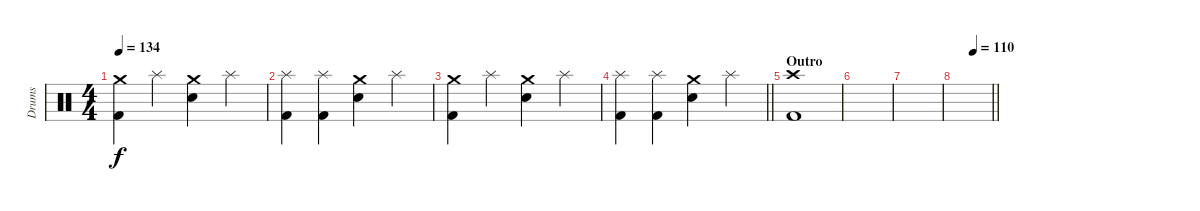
\track ("Drums" "Drums") {instrument percussion}
\staff {score}
\articulation defaults
\ts (4 4)
\tempo 134
\clef neutral
\ks c
("Crash medium (hit)" "Kick (hit) 2").4{dy f} "Splash (hit)".4 ("Crash medium (hit)" "Electric Snare (hit)").4 "Splash (hit)".4 |
("Splash (hit)" "Kick (hit) 2").4 ("Splash (hit)" "Kick (hit) 2").4 ("Crash medium (hit)" "Electric Snare (hit)").4 "Splash (hit)".4 |
("Crash medium (hit)" "Kick (hit) 2").4 "Splash (hit)".4 ("Crash medium (hit)" "Electric Snare (hit)").4 "Splash (hit)".4 |
\barLineRight lightlight
("Splash (hit)" "Kick (hit) 2").4 ("Splash (hit)" "Kick (hit) 2").4 ("Crash medium (hit)" "Electric Snare (hit)").4 "Splash (hit)".4 |
\section ("" "Outro")
("Crash high (hit)" "Kick (hit) 2").1 |
|
|
\tempo (110 0.5)
\barLineRight lightlight
